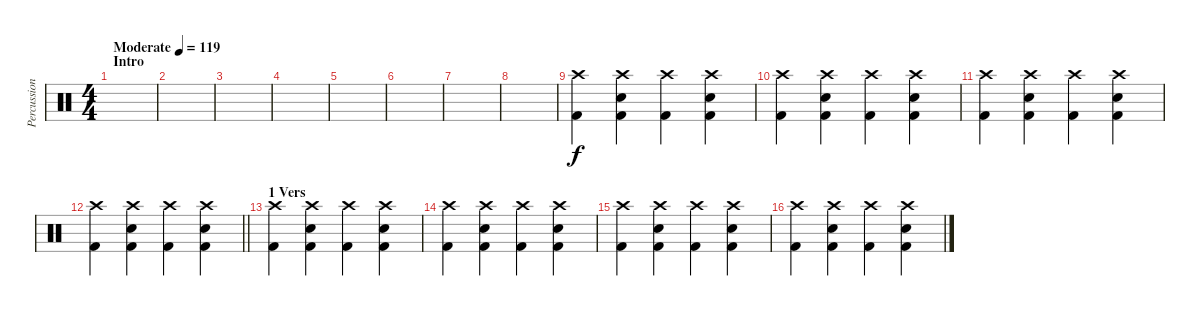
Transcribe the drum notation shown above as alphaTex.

\track ("Percussion" "Percussion") {instrument percussion}
\staff {score}
\articulation defaults
\ts (4 4)
\section ("" "Intro")
\tempo (119 "Moderate")
\clef neutral
\ks c
|
|
|
|
|
|
|
|
("Crash high (hit)" "Kick (hit) 2").4 ("Crash high (hit)" "Snare (hit) 2" "Kick (hit) 2").4 ("Crash high (hit)" "Kick (hit) 2").4 ("Crash high (hit)" "Snare (hit) 2" "Kick (hit) 2").4 |
("Crash high (hit)" "Kick (hit) 2").4 ("Crash high (hit)" "Snare (hit) 2" "Kick (hit) 2").4 ("Crash high (hit)" "Kick (hit) 2").4 ("Crash high (hit)" "Snare (hit) 2" "Kick (hit) 2").4 |
("Crash high (hit)" "Kick (hit) 2").4 ("Crash high (hit)" "Snare (hit) 2" "Kick (hit) 2").4 ("Crash high (hit)" "Kick (hit) 2").4 ("Crash high (hit)" "Snare (hit) 2" "Kick (hit) 2").4 |
\barLineRight lightlight
("Crash high (hit)" "Kick (hit) 2").4 ("Crash high (hit)" "Snare (hit) 2" "Kick (hit) 2").4 ("Crash high (hit)" "Kick (hit) 2").4 ("Crash high (hit)" "Snare (hit) 2" "Kick (hit) 2").4 |
\section ("" "1 Vers")
("Crash high (hit)" "Kick (hit) 2").4 ("Crash high (hit)" "Snare (hit) 2" "Kick (hit) 2").4 ("Crash high (hit)" "Kick (hit) 2").4 ("Crash high (hit)" "Snare (hit) 2" "Kick (hit) 2").4 |
("Crash high (hit)" "Kick (hit) 2").4 ("Crash high (hit)" "Snare (hit) 2" "Kick (hit) 2").4 ("Crash high (hit)" "Kick (hit) 2").4 ("Crash high (hit)" "Snare (hit) 2" "Kick (hit) 2").4 |
("Crash high (hit)" "Kick (hit) 2").4 ("Crash high (hit)" "Snare (hit) 2" "Kick (hit) 2").4 ("Crash high (hit)" "Kick (hit) 2").4 ("Crash high (hit)" "Snare (hit) 2" "Kick (hit) 2").4 |
("Crash high (hit)" "Kick (hit) 2").4 ("Crash high (hit)" "Snare (hit) 2" "Kick (hit) 2").4 ("Crash high (hit)" "Kick (hit) 2").4 ("Crash high (hit)" "Snare (hit) 2" "Kick (hit) 2").4
